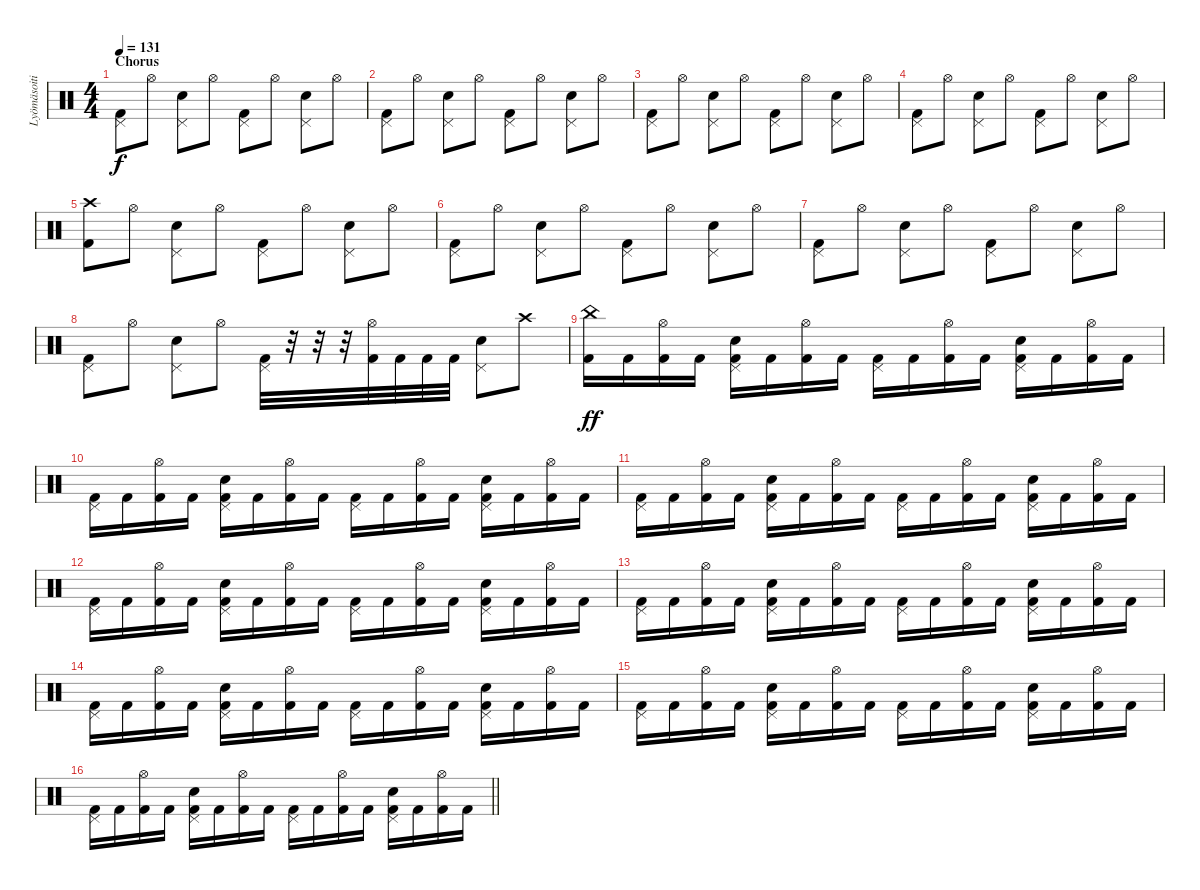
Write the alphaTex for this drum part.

\track ("Lyömäsoitin" "Lyömäsoiti") {instrument percussion}
\staff {score}
\articulation defaults
\ts (4 4)
\section ("" "Chorus")
\tempo 131
\clef neutral
\ks c
("Pedal Hi-Hat (hit)" "Kick (hit) 2").8{dy f} "Hi-Hat (open)".8 ("Pedal Hi-Hat (hit)" "Electric Snare (hit)").8 "Hi-Hat (open)".8 ("Pedal Hi-Hat (hit)" "Kick (hit) 2").8 "Hi-Hat (open)".8 ("Pedal Hi-Hat (hit)" "Electric Snare (hit)").8 "Hi-Hat (open)".8 |
("Pedal Hi-Hat (hit)" "Kick (hit) 2").8 "Hi-Hat (open)".8 ("Pedal Hi-Hat (hit)" "Electric Snare (hit)").8 "Hi-Hat (open)".8 ("Pedal Hi-Hat (hit)" "Kick (hit) 2").8 "Hi-Hat (open)".8 ("Pedal Hi-Hat (hit)" "Electric Snare (hit)").8 "Hi-Hat (open)".8 |
("Pedal Hi-Hat (hit)" "Kick (hit) 2").8 "Hi-Hat (open)".8 ("Pedal Hi-Hat (hit)" "Electric Snare (hit)").8 "Hi-Hat (open)".8 ("Pedal Hi-Hat (hit)" "Kick (hit) 2").8 "Hi-Hat (open)".8 ("Pedal Hi-Hat (hit)" "Electric Snare (hit)").8 "Hi-Hat (open)".8 |
("Pedal Hi-Hat (hit)" "Kick (hit) 2").8 "Hi-Hat (open)".8 ("Pedal Hi-Hat (hit)" "Electric Snare (hit)").8 "Hi-Hat (open)".8 ("Pedal Hi-Hat (hit)" "Kick (hit) 2").8 "Hi-Hat (open)".8 ("Pedal Hi-Hat (hit)" "Electric Snare (hit)").8 "Hi-Hat (open)".8 |
("Crash high (hit)" "Kick (hit) 2").8 "Hi-Hat (open)".8 ("Pedal Hi-Hat (hit)" "Electric Snare (hit)").8 "Hi-Hat (open)".8 ("Pedal Hi-Hat (hit)" "Kick (hit) 2").8 "Hi-Hat (open)".8 ("Pedal Hi-Hat (hit)" "Electric Snare (hit)").8 "Hi-Hat (open)".8 |
("Pedal Hi-Hat (hit)" "Kick (hit) 2").8 "Hi-Hat (open)".8 ("Pedal Hi-Hat (hit)" "Electric Snare (hit)").8 "Hi-Hat (open)".8 ("Pedal Hi-Hat (hit)" "Kick (hit) 2").8 "Hi-Hat (open)".8 ("Pedal Hi-Hat (hit)" "Electric Snare (hit)").8 "Hi-Hat (open)".8 |
("Pedal Hi-Hat (hit)" "Kick (hit) 2").8 "Hi-Hat (open)".8 ("Pedal Hi-Hat (hit)" "Electric Snare (hit)").8 "Hi-Hat (open)".8 ("Pedal Hi-Hat (hit)" "Kick (hit) 2").8 "Hi-Hat (open)".8 ("Pedal Hi-Hat (hit)" "Electric Snare (hit)").8 "Hi-Hat (open)".8 |
("Pedal Hi-Hat (hit)" "Kick (hit) 2").8 "Hi-Hat (open)".8 ("Pedal Hi-Hat (hit)" "Electric Snare (hit)").8 "Hi-Hat (open)".8 ("Pedal Hi-Hat (hit)" "Kick (hit) 2").32 r.32 r.32 r.32 ("Hi-Hat (open)" "Kick (hit) 2").32 "Kick (hit) 2".32 "Kick (hit) 2".32 "Kick (hit) 2".32 ("Pedal Hi-Hat (hit)" "Electric Snare (hit)").8 "Crash high (hit)".8 |
("China (hit)" "Kick (hit) 2").16{dy ff} "Kick (hit) 2".16 ("Hi-Hat (open)" "Kick (hit) 2").16 "Kick (hit) 2".16 ("Electric Snare (hit)" "Pedal Hi-Hat (hit)" "Kick (hit) 2").16 "Kick (hit) 2".16 ("Hi-Hat (open)" "Kick (hit) 2").16 "Kick (hit) 2".16 ("Pedal Hi-Hat (hit)" "Kick (hit) 2").16 "Kick (hit) 2".16 ("Hi-Hat (open)" "Kick (hit) 2").16 "Kick (hit) 2".16 ("Electric Snare (hit)" "Pedal Hi-Hat (hit)" "Kick (hit) 2").16 "Kick (hit) 2".16 ("Hi-Hat (open)" "Kick (hit) 2").16 "Kick (hit) 2".16 |
("Pedal Hi-Hat (hit)" "Kick (hit) 2").16 "Kick (hit) 2".16 ("Hi-Hat (open)" "Kick (hit) 2").16 "Kick (hit) 2".16 ("Electric Snare (hit)" "Pedal Hi-Hat (hit)" "Kick (hit) 2").16 "Kick (hit) 2".16 ("Hi-Hat (open)" "Kick (hit) 2").16 "Kick (hit) 2".16 ("Pedal Hi-Hat (hit)" "Kick (hit) 2").16 "Kick (hit) 2".16 ("Hi-Hat (open)" "Kick (hit) 2").16 "Kick (hit) 2".16 ("Electric Snare (hit)" "Pedal Hi-Hat (hit)" "Kick (hit) 2").16 "Kick (hit) 2".16 ("Hi-Hat (open)" "Kick (hit) 2").16 "Kick (hit) 2".16 |
("Pedal Hi-Hat (hit)" "Kick (hit) 2").16 "Kick (hit) 2".16 ("Hi-Hat (open)" "Kick (hit) 2").16 "Kick (hit) 2".16 ("Electric Snare (hit)" "Pedal Hi-Hat (hit)" "Kick (hit) 2").16 "Kick (hit) 2".16 ("Hi-Hat (open)" "Kick (hit) 2").16 "Kick (hit) 2".16 ("Pedal Hi-Hat (hit)" "Kick (hit) 2").16 "Kick (hit) 2".16 ("Hi-Hat (open)" "Kick (hit) 2").16 "Kick (hit) 2".16 ("Electric Snare (hit)" "Pedal Hi-Hat (hit)" "Kick (hit) 2").16 "Kick (hit) 2".16 ("Hi-Hat (open)" "Kick (hit) 2").16 "Kick (hit) 2".16 |
("Pedal Hi-Hat (hit)" "Kick (hit) 2").16 "Kick (hit) 2".16 ("Hi-Hat (open)" "Kick (hit) 2").16 "Kick (hit) 2".16 ("Electric Snare (hit)" "Pedal Hi-Hat (hit)" "Kick (hit) 2").16 "Kick (hit) 2".16 ("Hi-Hat (open)" "Kick (hit) 2").16 "Kick (hit) 2".16 ("Pedal Hi-Hat (hit)" "Kick (hit) 2").16 "Kick (hit) 2".16 ("Hi-Hat (open)" "Kick (hit) 2").16 "Kick (hit) 2".16 ("Electric Snare (hit)" "Pedal Hi-Hat (hit)" "Kick (hit) 2").16 "Kick (hit) 2".16 ("Hi-Hat (open)" "Kick (hit) 2").16 "Kick (hit) 2".16 |
("Pedal Hi-Hat (hit)" "Kick (hit) 2").16 "Kick (hit) 2".16 ("Hi-Hat (open)" "Kick (hit) 2").16 "Kick (hit) 2".16 ("Electric Snare (hit)" "Pedal Hi-Hat (hit)" "Kick (hit) 2").16 "Kick (hit) 2".16 ("Hi-Hat (open)" "Kick (hit) 2").16 "Kick (hit) 2".16 ("Pedal Hi-Hat (hit)" "Kick (hit) 2").16 "Kick (hit) 2".16 ("Hi-Hat (open)" "Kick (hit) 2").16 "Kick (hit) 2".16 ("Electric Snare (hit)" "Pedal Hi-Hat (hit)" "Kick (hit) 2").16 "Kick (hit) 2".16 ("Hi-Hat (open)" "Kick (hit) 2").16 "Kick (hit) 2".16 |
("Pedal Hi-Hat (hit)" "Kick (hit) 2").16 "Kick (hit) 2".16 ("Hi-Hat (open)" "Kick (hit) 2").16 "Kick (hit) 2".16 ("Electric Snare (hit)" "Pedal Hi-Hat (hit)" "Kick (hit) 2").16 "Kick (hit) 2".16 ("Hi-Hat (open)" "Kick (hit) 2").16 "Kick (hit) 2".16 ("Pedal Hi-Hat (hit)" "Kick (hit) 2").16 "Kick (hit) 2".16 ("Hi-Hat (open)" "Kick (hit) 2").16 "Kick (hit) 2".16 ("Electric Snare (hit)" "Pedal Hi-Hat (hit)" "Kick (hit) 2").16 "Kick (hit) 2".16 ("Hi-Hat (open)" "Kick (hit) 2").16 "Kick (hit) 2".16 |
("Pedal Hi-Hat (hit)" "Kick (hit) 2").16 "Kick (hit) 2".16 ("Hi-Hat (open)" "Kick (hit) 2").16 "Kick (hit) 2".16 ("Electric Snare (hit)" "Pedal Hi-Hat (hit)" "Kick (hit) 2").16 "Kick (hit) 2".16 ("Hi-Hat (open)" "Kick (hit) 2").16 "Kick (hit) 2".16 ("Pedal Hi-Hat (hit)" "Kick (hit) 2").16 "Kick (hit) 2".16 ("Hi-Hat (open)" "Kick (hit) 2").16 "Kick (hit) 2".16 ("Electric Snare (hit)" "Pedal Hi-Hat (hit)" "Kick (hit) 2").16 "Kick (hit) 2".16 ("Hi-Hat (open)" "Kick (hit) 2").16 "Kick (hit) 2".16 |
\barLineRight lightlight
("Pedal Hi-Hat (hit)" "Kick (hit) 2").16 "Kick (hit) 2".16 ("Hi-Hat (open)" "Kick (hit) 2").16 "Kick (hit) 2".16 ("Electric Snare (hit)" "Pedal Hi-Hat (hit)" "Kick (hit) 2").16 "Kick (hit) 2".16 ("Hi-Hat (open)" "Kick (hit) 2").16 "Kick (hit) 2".16 ("Pedal Hi-Hat (hit)" "Kick (hit) 2").16 "Kick (hit) 2".16 ("Hi-Hat (open)" "Kick (hit) 2").16 "Kick (hit) 2".16 ("Electric Snare (hit)" "Pedal Hi-Hat (hit)" "Kick (hit) 2").16 "Kick (hit) 2".16 ("Hi-Hat (open)" "Kick (hit) 2").16 "Kick (hit) 2".16
